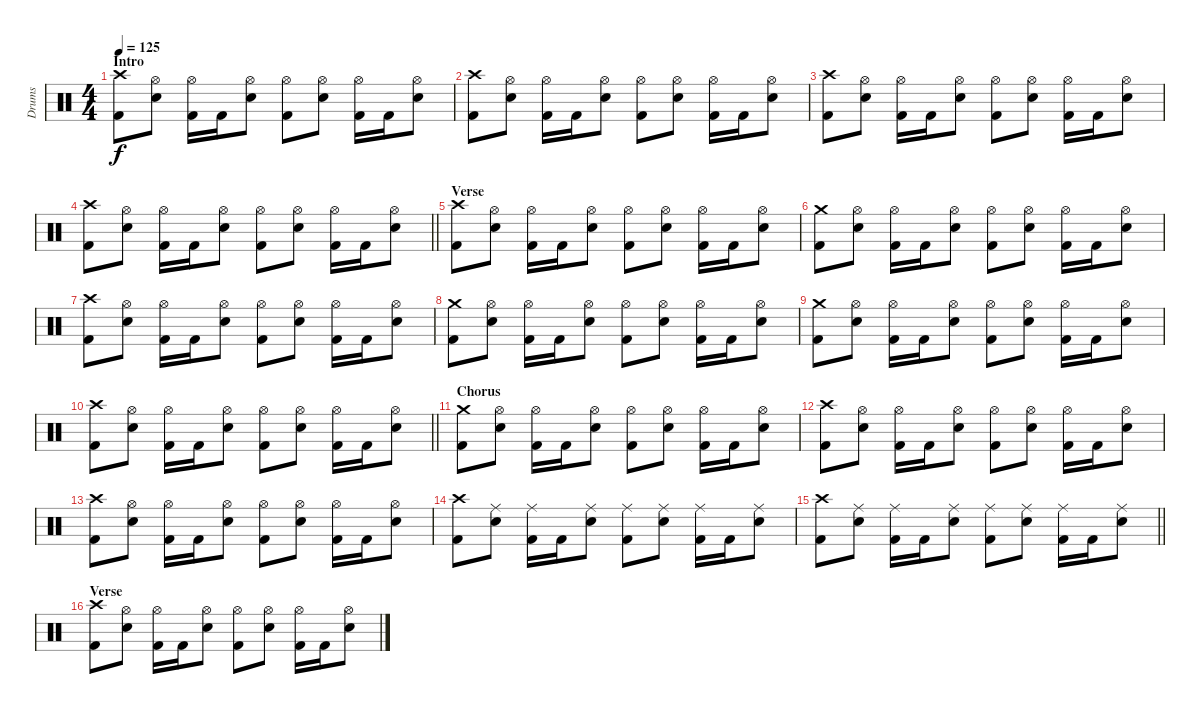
\track ("Drums" "Drums") {instrument percussion}
\staff {score}
\articulation defaults
\ts (4 4)
\section ("" "Intro")
\tempo 125
\clef neutral
\ks c
("Crash high (hit)" "Kick (hit) 2").8{dy f} ("Hi-Hat (open)" "Electric Snare (hit)").8 ("Hi-Hat (open)" "Kick (hit) 2").16 "Kick (hit) 2".16 ("Hi-Hat (open)" "Electric Snare (hit)").8 ("Hi-Hat (open)" "Kick (hit) 2").8 ("Hi-Hat (open)" "Electric Snare (hit)").8 ("Hi-Hat (open)" "Kick (hit) 2").16 "Kick (hit) 2".16 ("Hi-Hat (open)" "Electric Snare (hit)").8 |
("Crash high (hit)" "Kick (hit) 2").8 ("Hi-Hat (open)" "Electric Snare (hit)").8 ("Hi-Hat (open)" "Kick (hit) 2").16 "Kick (hit) 2".16 ("Hi-Hat (open)" "Electric Snare (hit)").8 ("Hi-Hat (open)" "Kick (hit) 2").8 ("Hi-Hat (open)" "Electric Snare (hit)").8 ("Hi-Hat (open)" "Kick (hit) 2").16 "Kick (hit) 2".16 ("Hi-Hat (open)" "Electric Snare (hit)").8 |
("Crash high (hit)" "Kick (hit) 2").8 ("Hi-Hat (open)" "Electric Snare (hit)").8 ("Hi-Hat (open)" "Kick (hit) 2").16 "Kick (hit) 2".16 ("Hi-Hat (open)" "Electric Snare (hit)").8 ("Hi-Hat (open)" "Kick (hit) 2").8 ("Hi-Hat (open)" "Electric Snare (hit)").8 ("Hi-Hat (open)" "Kick (hit) 2").16 "Kick (hit) 2".16 ("Hi-Hat (open)" "Electric Snare (hit)").8 |
\barLineRight lightlight
("Crash high (hit)" "Kick (hit) 2").8 ("Hi-Hat (open)" "Electric Snare (hit)").8 ("Hi-Hat (open)" "Kick (hit) 2").16 "Kick (hit) 2".16 ("Hi-Hat (open)" "Electric Snare (hit)").8 ("Hi-Hat (open)" "Kick (hit) 2").8 ("Hi-Hat (open)" "Electric Snare (hit)").8 ("Hi-Hat (open)" "Kick (hit) 2").16 "Kick (hit) 2".16 ("Hi-Hat (open)" "Electric Snare (hit)").8 |
\section ("" "Verse")
("Crash high (hit)" "Kick (hit) 2").8 ("Hi-Hat (open)" "Electric Snare (hit)").8 ("Hi-Hat (open)" "Kick (hit) 2").16 "Kick (hit) 2".16 ("Hi-Hat (open)" "Electric Snare (hit)").8 ("Hi-Hat (open)" "Kick (hit) 2").8 ("Hi-Hat (open)" "Electric Snare (hit)").8 ("Hi-Hat (open)" "Kick (hit) 2").16 "Kick (hit) 2".16 ("Hi-Hat (open)" "Electric Snare (hit)").8 |
("Crash medium (hit)" "Kick (hit) 2").8 ("Hi-Hat (open)" "Electric Snare (hit)").8 ("Hi-Hat (open)" "Kick (hit) 2").16 "Kick (hit) 2".16 ("Hi-Hat (open)" "Electric Snare (hit)").8 ("Hi-Hat (open)" "Kick (hit) 2").8 ("Hi-Hat (open)" "Electric Snare (hit)").8 ("Hi-Hat (open)" "Kick (hit) 2").16 "Kick (hit) 2".16 ("Hi-Hat (open)" "Electric Snare (hit)").8 |
("Crash high (hit)" "Kick (hit) 2").8 ("Hi-Hat (open)" "Electric Snare (hit)").8 ("Hi-Hat (open)" "Kick (hit) 2").16 "Kick (hit) 2".16 ("Hi-Hat (open)" "Electric Snare (hit)").8 ("Hi-Hat (open)" "Kick (hit) 2").8 ("Hi-Hat (open)" "Electric Snare (hit)").8 ("Hi-Hat (open)" "Kick (hit) 2").16 "Kick (hit) 2".16 ("Hi-Hat (open)" "Electric Snare (hit)").8 |
("Crash medium (hit)" "Kick (hit) 2").8 ("Hi-Hat (open)" "Electric Snare (hit)").8 ("Hi-Hat (open)" "Kick (hit) 2").16 "Kick (hit) 2".16 ("Hi-Hat (open)" "Electric Snare (hit)").8 ("Hi-Hat (open)" "Kick (hit) 2").8 ("Hi-Hat (open)" "Electric Snare (hit)").8 ("Hi-Hat (open)" "Kick (hit) 2").16 "Kick (hit) 2".16 ("Hi-Hat (open)" "Electric Snare (hit)").8 |
("Crash medium (hit)" "Kick (hit) 2").8 ("Hi-Hat (open)" "Electric Snare (hit)").8 ("Hi-Hat (open)" "Kick (hit) 2").16 "Kick (hit) 2".16 ("Hi-Hat (open)" "Electric Snare (hit)").8 ("Hi-Hat (open)" "Kick (hit) 2").8 ("Hi-Hat (open)" "Electric Snare (hit)").8 ("Hi-Hat (open)" "Kick (hit) 2").16 "Kick (hit) 2".16 ("Hi-Hat (open)" "Electric Snare (hit)").8 |
\barLineRight lightlight
("Crash high (hit)" "Kick (hit) 2").8 ("Hi-Hat (open)" "Electric Snare (hit)").8 ("Hi-Hat (open)" "Kick (hit) 2").16 "Kick (hit) 2".16 ("Hi-Hat (open)" "Electric Snare (hit)").8 ("Hi-Hat (open)" "Kick (hit) 2").8 ("Hi-Hat (open)" "Electric Snare (hit)").8 ("Hi-Hat (open)" "Kick (hit) 2").16 "Kick (hit) 2".16 ("Hi-Hat (open)" "Electric Snare (hit)").8 |
\section ("" "Chorus")
("Crash medium (hit)" "Kick (hit) 2").8 ("Hi-Hat (open)" "Electric Snare (hit)").8 ("Hi-Hat (open)" "Kick (hit) 2").16 "Kick (hit) 2".16 ("Hi-Hat (open)" "Electric Snare (hit)").8 ("Hi-Hat (open)" "Kick (hit) 2").8 ("Hi-Hat (open)" "Electric Snare (hit)").8 ("Hi-Hat (open)" "Kick (hit) 2").16 "Kick (hit) 2".16 ("Hi-Hat (open)" "Electric Snare (hit)").8 |
("Crash high (hit)" "Kick (hit) 2").8 ("Hi-Hat (open)" "Electric Snare (hit)").8 ("Hi-Hat (open)" "Kick (hit) 2").16 "Kick (hit) 2".16 ("Hi-Hat (open)" "Electric Snare (hit)").8 ("Hi-Hat (open)" "Kick (hit) 2").8 ("Hi-Hat (open)" "Electric Snare (hit)").8 ("Hi-Hat (open)" "Kick (hit) 2").16 "Kick (hit) 2".16 ("Hi-Hat (open)" "Electric Snare (hit)").8 |
("Crash high (hit)" "Kick (hit) 2").8 ("Hi-Hat (open)" "Electric Snare (hit)").8 ("Hi-Hat (open)" "Kick (hit) 2").16 "Kick (hit) 2".16 ("Hi-Hat (open)" "Electric Snare (hit)").8 ("Hi-Hat (open)" "Kick (hit) 2").8 ("Hi-Hat (open)" "Electric Snare (hit)").8 ("Hi-Hat (open)" "Kick (hit) 2").16 "Kick (hit) 2".16 ("Hi-Hat (open)" "Electric Snare (hit)").8 |
("Crash high (hit)" "Kick (hit) 2").8 ("Ride (middle)" "Electric Snare (hit)").8 ("Ride (middle)" "Kick (hit) 2").16 "Kick (hit) 2".16 ("Ride (middle)" "Electric Snare (hit)").8 ("Ride (middle)" "Kick (hit) 2").8 ("Ride (middle)" "Electric Snare (hit)").8 ("Ride (middle)" "Kick (hit) 2").16 "Kick (hit) 2".16 ("Ride (middle)" "Electric Snare (hit)").8 |
\barLineRight lightlight
("Crash high (hit)" "Kick (hit) 2").8 ("Ride (middle)" "Electric Snare (hit)").8 ("Ride (middle)" "Kick (hit) 2").16 "Kick (hit) 2".16 ("Ride (middle)" "Electric Snare (hit)").8 ("Ride (middle)" "Kick (hit) 2").8 ("Ride (middle)" "Electric Snare (hit)").8 ("Ride (middle)" "Kick (hit) 2").16 "Kick (hit) 2".16 ("Ride (middle)" "Electric Snare (hit)").8 |
\section ("" "Verse")
("Crash high (hit)" "Kick (hit) 2").8 ("Hi-Hat (open)" "Electric Snare (hit)").8 ("Hi-Hat (open)" "Kick (hit) 2").16 "Kick (hit) 2".16 ("Hi-Hat (open)" "Electric Snare (hit)").8 ("Hi-Hat (open)" "Kick (hit) 2").8 ("Hi-Hat (open)" "Electric Snare (hit)").8 ("Hi-Hat (open)" "Kick (hit) 2").16 "Kick (hit) 2".16 ("Hi-Hat (open)" "Electric Snare (hit)").8
